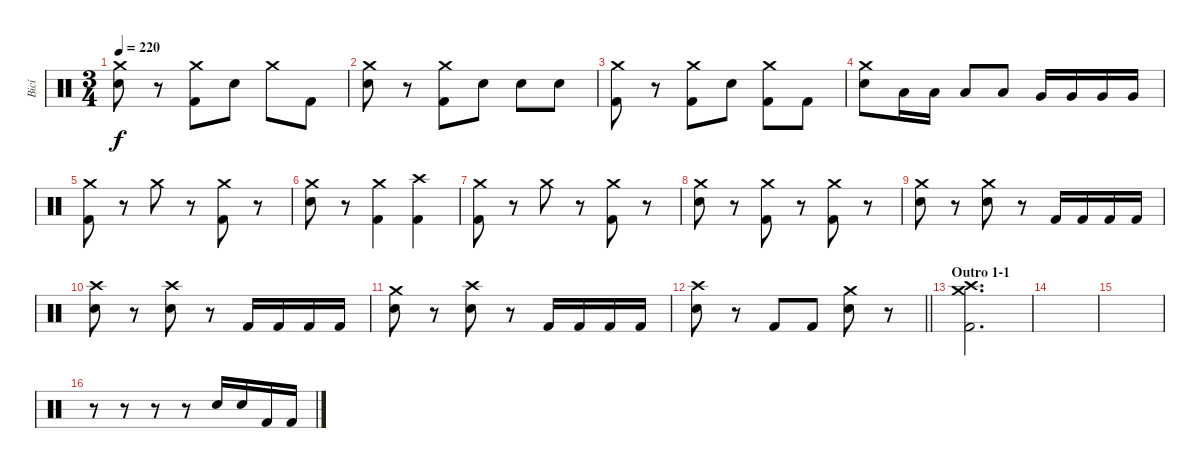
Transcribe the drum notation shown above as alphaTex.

\track ("Bicí" "Bicí") {instrument percussion}
\staff {score}
\articulation defaults
\ts (3 4)
\tempo 220
\clef neutral
\ks c
("Crash medium (hit)" "Electric Snare (hit)").8{dy f} r.8 ("Crash medium (hit)" "Kick (hit) 2").8 "Electric Snare (hit)".8 "Crash medium (hit)".8 "Kick (hit) 2".8 |
("Crash medium (hit)" "Electric Snare (hit)").8 r.8 ("Crash medium (hit)" "Kick (hit) 2").8 "Electric Snare (hit)".8 "Electric Snare (hit)".8 "Electric Snare (hit)".8 |
("Crash medium (hit)" "Kick (hit) 2").8 r.8 ("Crash medium (hit)" "Kick (hit) 2").8 "Electric Snare (hit)".8 ("Crash medium (hit)" "Kick (hit) 2").8 "Kick (hit) 2".8 |
("Crash medium (hit)" "Electric Snare (hit)").8 "Low Tom (hit)".16 "Low Tom (hit)".16 "Low Tom (hit)".8 "Low Tom (hit)".8 "Very Low Tom (hit)".16 "Very Low Tom (hit)".16 "Very Low Tom (hit)".16 "Very Low Tom (hit)".16 |
("Crash medium (hit)" "Kick (hit) 2").8 r.8 "Crash medium (hit)".8 r.8 ("Crash medium (hit)" "Kick (hit) 2").8 r.8 |
("Crash medium (hit)" "Electric Snare (hit)").8 r.8 ("Crash medium (hit)" "Kick (hit) 2").4 ("Crash high (hit)" "Kick (hit) 2").4 |
("Crash medium (hit)" "Kick (hit) 2").8 r.8 "Crash medium (hit)".8 r.8 ("Crash medium (hit)" "Kick (hit) 2").8 r.8 |
("Crash medium (hit)" "Electric Snare (hit)").8 r.8 ("Crash medium (hit)" "Kick (hit) 2").8 r.8 ("Crash medium (hit)" "Kick (hit) 2").8 r.8 |
("Crash medium (hit)" "Electric Snare (hit)").8 r.8 ("Crash medium (hit)" "Electric Snare (hit)").8 r.8 "Kick (hit) 2".16 "Kick (hit) 2".16 "Kick (hit) 2".16 "Kick (hit) 2".16 |
("Crash high (hit)" "Electric Snare (hit)").8 r.8 ("Crash high (hit)" "Electric Snare (hit)").8 r.8 "Kick (hit) 2".16 "Kick (hit) 2".16 "Kick (hit) 2".16 "Kick (hit) 2".16 |
("Crash medium (hit)" "Electric Snare (hit)").8 r.8 ("Crash high (hit)" "Electric Snare (hit)").8 r.8 "Kick (hit) 2".16 "Kick (hit) 2".16 "Kick (hit) 2".16 "Kick (hit) 2".16 |
\barLineRight lightlight
("Crash high (hit)" "Electric Snare (hit)").8 r.8 "Kick (hit) 2".8 "Kick (hit) 2".8 ("Crash medium (hit)" "Electric Snare (hit)").8 r.8 |
\section ("" "Outro 1-1")
("Crash high (hit)" "Crash medium (hit)" "Kick (hit) 2").2{d} |
|
|
r.8 r.8 r.8 r.8 "Electric Snare (hit)".16 "Electric Snare (hit)".16 "Kick (hit) 2".16 "Kick (hit) 2".16
